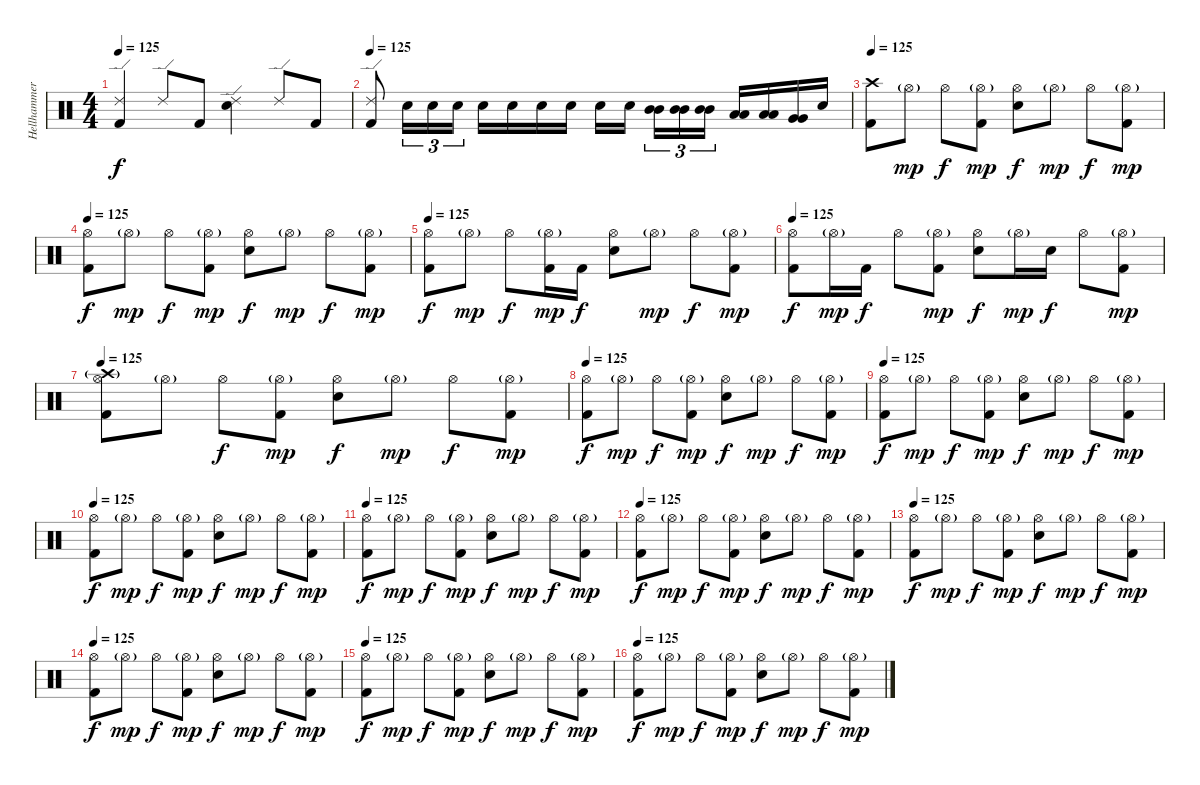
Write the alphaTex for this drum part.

\track ("Hellhammer" "Hellhammer") {instrument percussion}
\staff {score}
\articulation defaults
\ts (4 4)
\tempo 125
\clef neutral
\ks c
("Kick (hit) 2" "Ride (edge) 2").4{dy f} "Ride (edge) 2".8 "Kick (hit) 2".8 ("Electric Snare (hit)" "Ride (edge) 2").4 "Ride (edge) 2".8 "Kick (hit) 2".8 |
\tempo 125
("Kick (hit) 2" "Ride (edge) 2").8 "Electric Snare (hit)".16{tu (3 2)} "Electric Snare (hit)".16{tu (3 2)} "Electric Snare (hit)".16{tu (3 2)} "Electric Snare (hit)".16 "Electric Snare (hit)".16 "Electric Snare (hit)".16 "Electric Snare (hit)".16 "Electric Snare (hit)".16 "Electric Snare (hit)".16 ("Mid Tom (hit)" "Mid Tom (hit)").16{tu (3 2)} ("Mid Tom (hit)" "Mid Tom (hit)").16{tu (3 2)} ("Mid Tom (hit)" "Mid Tom (hit)").16{tu (3 2)} ("Low Tom (hit)" "Low Tom (hit)").16 ("Low Tom (hit)" "Low Tom (hit)").16 ("Very Low Tom (hit)" "Very Low Tom (hit)").16 "Electric Snare (hit)".16 |
\tempo 125
("Kick (hit) 2" "Crash high (hit)").8 "Hi-Hat (open)"{g}.8{dy mp} "Hi-Hat (open)".8{dy f} ("Kick (hit) 2" "Hi-Hat (open)"{g}).8{dy mp} ("Electric Snare (hit)" "Hi-Hat (open)").8{dy f} "Hi-Hat (open)"{g}.8{dy mp} "Hi-Hat (open)".8{dy f} ("Kick (hit) 2" "Hi-Hat (open)"{g}).8{dy mp} |
\tempo 125
("Kick (hit) 2" "Hi-Hat (open)").8{dy f} "Hi-Hat (open)"{g}.8{dy mp} "Hi-Hat (open)".8{dy f} ("Kick (hit) 2" "Hi-Hat (open)"{g}).8{dy mp} ("Electric Snare (hit)" "Hi-Hat (open)").8{dy f} "Hi-Hat (open)"{g}.8{dy mp} "Hi-Hat (open)".8{dy f} ("Kick (hit) 2" "Hi-Hat (open)"{g}).8{dy mp} |
\tempo 125
("Kick (hit) 2" "Hi-Hat (open)").8{dy f} "Hi-Hat (open)"{g}.8{dy mp} "Hi-Hat (open)".8{dy f} ("Kick (hit) 2" "Hi-Hat (open)"{g}).16{dy mp} "Kick (hit) 2".16{dy f} ("Electric Snare (hit)" "Hi-Hat (open)").8 "Hi-Hat (open)"{g}.8{dy mp} "Hi-Hat (open)".8{dy f} ("Kick (hit) 2" "Hi-Hat (open)"{g}).8{dy mp} |
\tempo 125
("Kick (hit) 2" "Hi-Hat (open)").8{dy f} "Hi-Hat (open)"{g}.16{dy mp} "Kick (hit) 2".16{dy f} "Hi-Hat (open)".8 ("Kick (hit) 2" "Hi-Hat (open)"{g}).8{dy mp} ("Electric Snare (hit)" "Hi-Hat (open)").8{dy f} "Hi-Hat (open)"{g}.16{dy mp} "Electric Snare (hit)".16{dy f} "Hi-Hat (open)".8 ("Kick (hit) 2" "Hi-Hat (open)"{g}).8{dy mp} |
\tempo 125
("Kick (hit) 2" "Hi-Hat (open)" "Crash high (hit)"{g}).8 "Hi-Hat (open)"{g}.8 "Hi-Hat (open)".8{dy f} ("Kick (hit) 2" "Hi-Hat (open)"{g}).8{dy mp} ("Electric Snare (hit)" "Hi-Hat (open)").8{dy f} "Hi-Hat (open)"{g}.8{dy mp} "Hi-Hat (open)".8{dy f} ("Kick (hit) 2" "Hi-Hat (open)"{g}).8{dy mp} |
\tempo 125
("Kick (hit) 2" "Hi-Hat (open)").8{dy f} "Hi-Hat (open)"{g}.8{dy mp} "Hi-Hat (open)".8{dy f} ("Kick (hit) 2" "Hi-Hat (open)"{g}).8{dy mp} ("Electric Snare (hit)" "Hi-Hat (open)").8{dy f} "Hi-Hat (open)"{g}.8{dy mp} "Hi-Hat (open)".8{dy f} ("Kick (hit) 2" "Hi-Hat (open)"{g}).8{dy mp} |
\tempo 125
("Kick (hit) 2" "Hi-Hat (open)").8{dy f} "Hi-Hat (open)"{g}.8{dy mp} "Hi-Hat (open)".8{dy f} ("Kick (hit) 2" "Hi-Hat (open)"{g}).8{dy mp} ("Electric Snare (hit)" "Hi-Hat (open)").8{dy f} "Hi-Hat (open)"{g}.8{dy mp} "Hi-Hat (open)".8{dy f} ("Kick (hit) 2" "Hi-Hat (open)"{g}).8{dy mp} |
\tempo 125
("Kick (hit) 2" "Hi-Hat (open)").8{dy f} "Hi-Hat (open)"{g}.8{dy mp} "Hi-Hat (open)".8{dy f} ("Kick (hit) 2" "Hi-Hat (open)"{g}).8{dy mp} ("Electric Snare (hit)" "Hi-Hat (open)").8{dy f} "Hi-Hat (open)"{g}.8{dy mp} "Hi-Hat (open)".8{dy f} ("Kick (hit) 2" "Hi-Hat (open)"{g}).8{dy mp} |
\tempo 125
("Kick (hit) 2" "Hi-Hat (open)").8{dy f} "Hi-Hat (open)"{g}.8{dy mp} "Hi-Hat (open)".8{dy f} ("Kick (hit) 2" "Hi-Hat (open)"{g}).8{dy mp} ("Electric Snare (hit)" "Hi-Hat (open)").8{dy f} "Hi-Hat (open)"{g}.8{dy mp} "Hi-Hat (open)".8{dy f} ("Kick (hit) 2" "Hi-Hat (open)"{g}).8{dy mp} |
\tempo 125
("Kick (hit) 2" "Hi-Hat (open)").8{dy f} "Hi-Hat (open)"{g}.8{dy mp} "Hi-Hat (open)".8{dy f} ("Kick (hit) 2" "Hi-Hat (open)"{g}).8{dy mp} ("Electric Snare (hit)" "Hi-Hat (open)").8{dy f} "Hi-Hat (open)"{g}.8{dy mp} "Hi-Hat (open)".8{dy f} ("Kick (hit) 2" "Hi-Hat (open)"{g}).8{dy mp} |
\tempo 125
("Kick (hit) 2" "Hi-Hat (open)").8{dy f} "Hi-Hat (open)"{g}.8{dy mp} "Hi-Hat (open)".8{dy f} ("Kick (hit) 2" "Hi-Hat (open)"{g}).8{dy mp} ("Electric Snare (hit)" "Hi-Hat (open)").8{dy f} "Hi-Hat (open)"{g}.8{dy mp} "Hi-Hat (open)".8{dy f} ("Kick (hit) 2" "Hi-Hat (open)"{g}).8{dy mp} |
\tempo 125
("Kick (hit) 2" "Hi-Hat (open)").8{dy f} "Hi-Hat (open)"{g}.8{dy mp} "Hi-Hat (open)".8{dy f} ("Kick (hit) 2" "Hi-Hat (open)"{g}).8{dy mp} ("Electric Snare (hit)" "Hi-Hat (open)").8{dy f} "Hi-Hat (open)"{g}.8{dy mp} "Hi-Hat (open)".8{dy f} ("Kick (hit) 2" "Hi-Hat (open)"{g}).8{dy mp} |
\tempo 125
("Kick (hit) 2" "Hi-Hat (open)").8{dy f} "Hi-Hat (open)"{g}.8{dy mp} "Hi-Hat (open)".8{dy f} ("Kick (hit) 2" "Hi-Hat (open)"{g}).8{dy mp} ("Electric Snare (hit)" "Hi-Hat (open)").8{dy f} "Hi-Hat (open)"{g}.8{dy mp} "Hi-Hat (open)".8{dy f} ("Kick (hit) 2" "Hi-Hat (open)"{g}).8{dy mp} |
\tempo 125
("Kick (hit) 2" "Hi-Hat (open)").8{dy f} "Hi-Hat (open)"{g}.8{dy mp} "Hi-Hat (open)".8{dy f} ("Kick (hit) 2" "Hi-Hat (open)"{g}).8{dy mp} ("Electric Snare (hit)" "Hi-Hat (open)").8{dy f} "Hi-Hat (open)"{g}.8{dy mp} "Hi-Hat (open)".8{dy f} ("Kick (hit) 2" "Hi-Hat (open)"{g}).8{dy mp}
